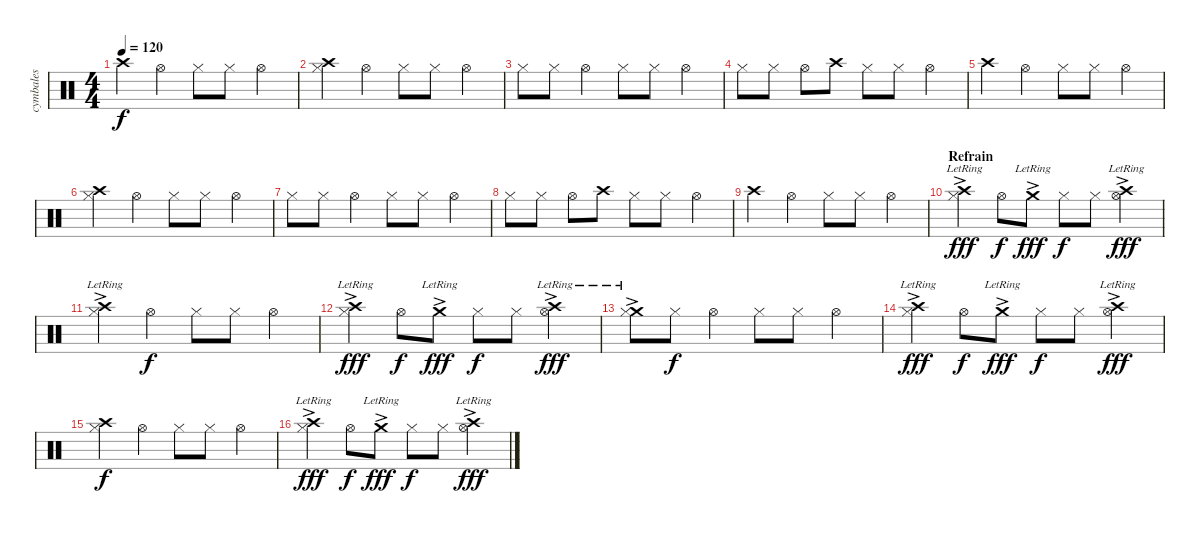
\track ("cymbales" "cymbales") {instrument percussion}
\staff {score}
\articulation defaults
\ts (4 4)
\tempo 120
\clef neutral
\ks c "Crash high (hit)".4{dy f} "Hi-Hat (open)".4 "Hi-Hat (closed)".8 "Hi-Hat (closed)".8 "Hi-Hat (open)".4
|
("Crash high (hit)" "Hi-Hat (closed)").4 "Hi-Hat (open)".4 "Hi-Hat (closed)".8 "Hi-Hat (closed)".8 "Hi-Hat (open)".4 |
"Hi-Hat (closed)".8 "Hi-Hat (closed)".8 "Hi-Hat (open)".4 "Hi-Hat (closed)".8 "Hi-Hat (closed)".8 "Hi-Hat (open)".4 |
"Hi-Hat (closed)".8 "Hi-Hat (closed)".8 "Hi-Hat (open)".8 "Crash high (hit)".8 "Hi-Hat (closed)".8 "Hi-Hat (closed)".8 "Hi-Hat (open)".4 |
"Crash high (hit)".4 "Hi-Hat (open)".4 "Hi-Hat (closed)".8 "Hi-Hat (closed)".8 "Hi-Hat (open)".4 |
("Crash high (hit)" "Hi-Hat (closed)").4 "Hi-Hat (open)".4 "Hi-Hat (closed)".8 "Hi-Hat (closed)".8 "Hi-Hat (open)".4 |
"Hi-Hat (closed)".8 "Hi-Hat (closed)".8 "Hi-Hat (open)".4 "Hi-Hat (closed)".8 "Hi-Hat (closed)".8 "Hi-Hat (open)".4 |
"Hi-Hat (closed)".8 "Hi-Hat (closed)".8 "Hi-Hat (open)".8 "Crash high (hit)".8 "Hi-Hat (closed)".8 "Hi-Hat (closed)".8 "Hi-Hat (open)".4 |
"Crash high (hit)".4 "Hi-Hat (open)".4 "Hi-Hat (closed)".8 "Hi-Hat (closed)".8 "Hi-Hat (open)".4 |
\section ("" "Refrain")
("Crash high (hit)"{ac lr} "Hi-Hat (closed)"{ac lr}).4{dy fff} "Hi-Hat (open)".8{dy f} "Crash medium (hit)"{ac lr}.8{dy fff} "Hi-Hat (closed)".8{dy f} "Hi-Hat (closed)".8 ("Crash high (hit)"{ac lr} "Hi-Hat (open)").4{dy fff} |
("Crash high (hit)"{ac lr} "Hi-Hat (closed)").4 "Hi-Hat (open)".4{dy f} "Hi-Hat (closed)".8 "Hi-Hat (closed)".8 "Hi-Hat (open)".4 |
("Crash high (hit)"{ac lr} "Hi-Hat (closed)"{ac lr}).4{dy fff} "Hi-Hat (open)".8{dy f} "Crash medium (hit)"{ac lr}.8{dy fff} "Hi-Hat (closed)".8{dy f} "Hi-Hat (closed)".8 ("Crash high (hit)"{ac lr} "Hi-Hat (open)").4{dy fff} |
("Crash medium (hit)"{ac lr} "Hi-Hat (closed)").8 "Hi-Hat (closed)".8{dy f} "Hi-Hat (open)".4 "Hi-Hat (closed)".8 "Hi-Hat (closed)".8 "Hi-Hat (open)".4 |
("Crash high (hit)"{ac lr} "Hi-Hat (closed)"{ac lr}).4{dy fff} "Hi-Hat (open)".8{dy f} "Crash medium (hit)"{ac lr}.8{dy fff} "Hi-Hat (closed)".8{dy f} "Hi-Hat (closed)".8 ("Crash high (hit)"{ac lr} "Hi-Hat (open)").4{dy fff} |
("Crash high (hit)" "Hi-Hat (closed)").4{dy f} "Hi-Hat (open)".4 "Hi-Hat (closed)".8 "Hi-Hat (closed)".8 "Hi-Hat (open)".4 |
("Crash high (hit)"{ac lr} "Hi-Hat (closed)"{ac lr}).4{dy fff} "Hi-Hat (open)".8{dy f} "Crash medium (hit)"{ac lr}.8{dy fff} "Hi-Hat (closed)".8{dy f} "Hi-Hat (closed)".8 ("Crash high (hit)"{ac lr} "Hi-Hat (open)").4{dy fff}
